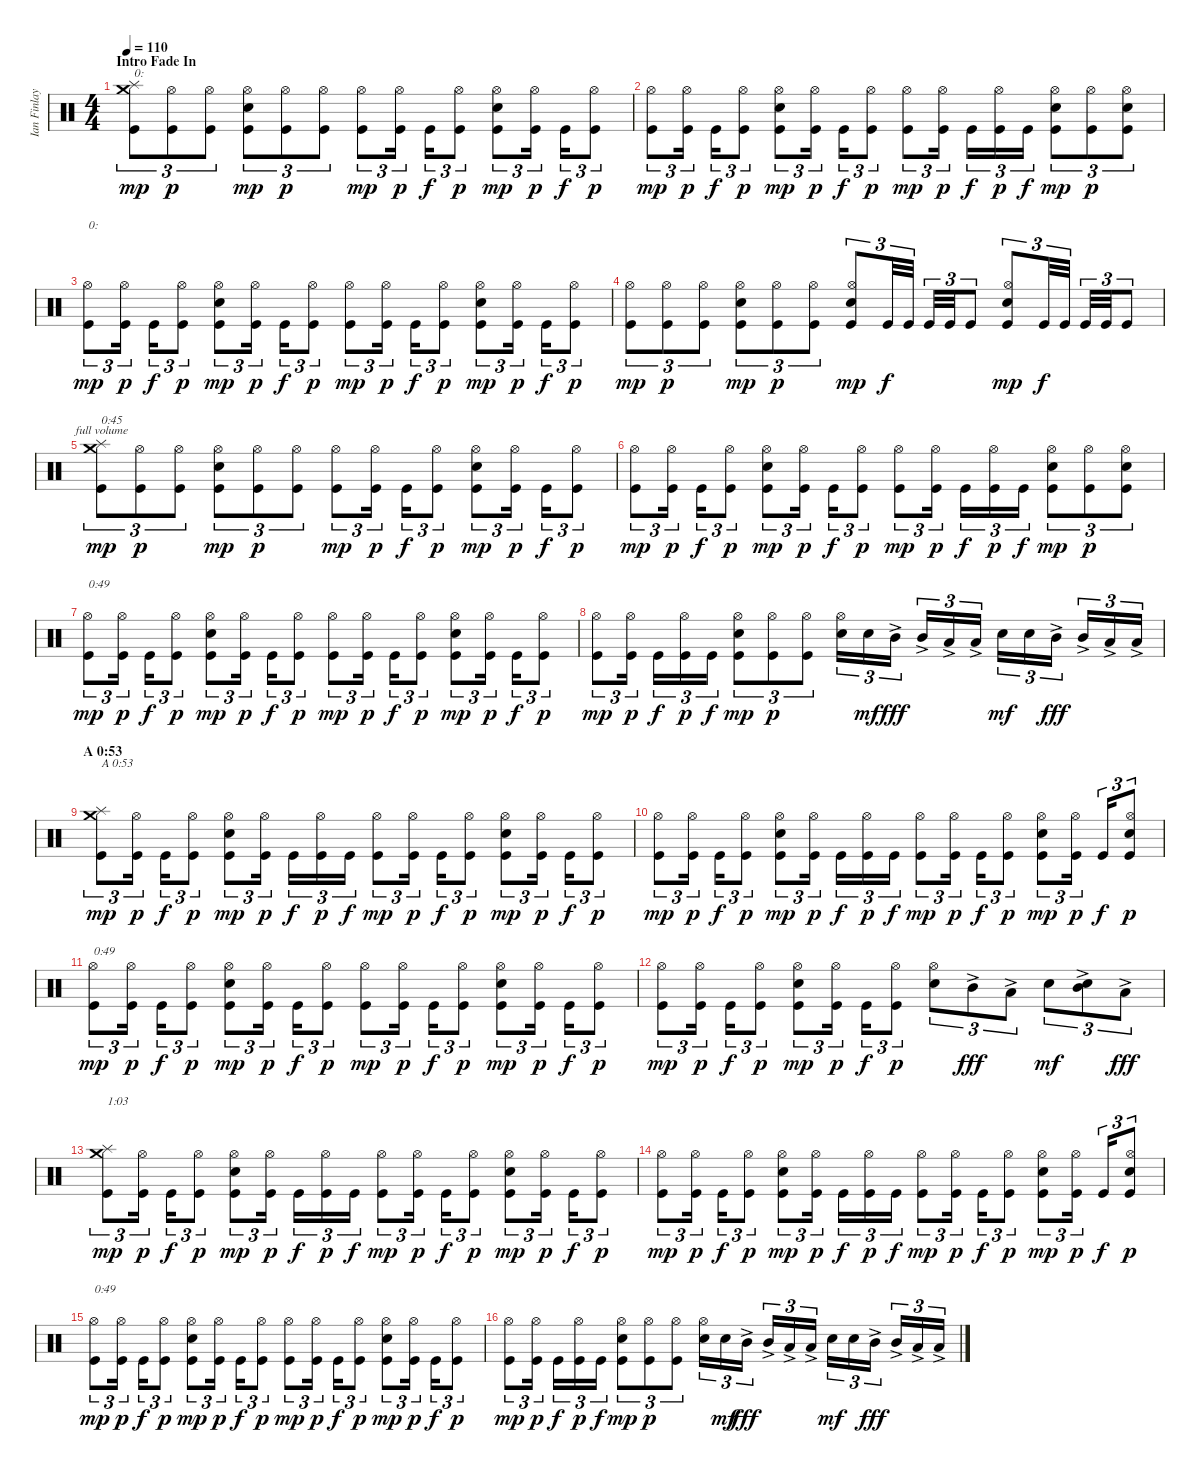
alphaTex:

\track ("Ian Finlay" "Ian Finlay") {instrument percussion}
\staff {score}
\articulation defaults
\chord ("full volume")
\ts (4 4)
\section ("" "Intro Fade In")
\tempo 110
\clef neutral
\ks c
("Kick (hit)" "Splash (hit)" "Crash medium (hit)").8{tu (3 2) txt "0:" dy mp volume 0} ("Kick (hit)" "Hi-Hat (open)").8{tu (3 2) dy p volume 12} ("Kick (hit)" "Hi-Hat (open)").8{tu (3 2)} ("Kick (hit)" "Snare (hit) 2" "Hi-Hat (open)").8{tu (3 2) dy mp} ("Kick (hit)" "Hi-Hat (open)").8{tu (3 2) dy p} ("Kick (hit)" "Hi-Hat (open)").8{tu (3 2)} ("Kick (hit)" "Hi-Hat (open)").8{tu (3 2) dy mp} ("Kick (hit)" "Hi-Hat (open)").16{tu (3 2) dy p} "Kick (hit)".16{tu (3 2) dy f} ("Kick (hit)" "Hi-Hat (open)").8{tu (3 2) dy p} ("Kick (hit)" "Snare (hit) 2" "Hi-Hat (open)").8{tu (3 2) dy mp} ("Kick (hit)" "Hi-Hat (open)").16{tu (3 2) dy p} "Kick (hit)".16{tu (3 2) dy f} ("Kick (hit)" "Hi-Hat (open)").8{tu (3 2) dy p} |
("Kick (hit)" "Hi-Hat (open)").8{tu (3 2) dy mp} ("Kick (hit)" "Hi-Hat (open)").16{tu (3 2) dy p} "Kick (hit)".16{tu (3 2) dy f} ("Kick (hit)" "Hi-Hat (open)").8{tu (3 2) dy p} ("Kick (hit)" "Snare (hit) 2" "Hi-Hat (open)").8{tu (3 2) dy mp} ("Kick (hit)" "Hi-Hat (open)").16{tu (3 2) dy p} "Kick (hit)".16{tu (3 2) dy f} ("Kick (hit)" "Hi-Hat (open)").8{tu (3 2) dy p} ("Kick (hit)" "Hi-Hat (open)").8{tu (3 2) dy mp} ("Kick (hit)" "Hi-Hat (open)").16{tu (3 2) dy p} "Kick (hit)".16{tu (3 2) dy f} ("Kick (hit)" "Hi-Hat (open)").16{tu (3 2) dy p} "Kick (hit)".16{tu (3 2) dy f} ("Kick (hit)" "Snare (hit) 2" "Hi-Hat (open)").8{tu (3 2) dy mp} ("Kick (hit)" "Hi-Hat (open)").8{tu (3 2) dy p} ("Kick (hit)" "Snare (hit) 2" "Hi-Hat (open)").8{tu (3 2)} |
("Kick (hit)" "Hi-Hat (open)").8{tu (3 2) txt "0:" dy mp} ("Kick (hit)" "Hi-Hat (open)").16{tu (3 2) dy p} "Kick (hit)".16{tu (3 2) dy f} ("Kick (hit)" "Hi-Hat (open)").8{tu (3 2) dy p} ("Kick (hit)" "Snare (hit) 2" "Hi-Hat (open)").8{tu (3 2) dy mp} ("Kick (hit)" "Hi-Hat (open)").16{tu (3 2) dy p} "Kick (hit)".16{tu (3 2) dy f} ("Kick (hit)" "Hi-Hat (open)").8{tu (3 2) dy p} ("Kick (hit)" "Hi-Hat (open)").8{tu (3 2) dy mp} ("Kick (hit)" "Hi-Hat (open)").16{tu (3 2) dy p} "Kick (hit)".16{tu (3 2) dy f} ("Kick (hit)" "Hi-Hat (open)").8{tu (3 2) dy p} ("Kick (hit)" "Snare (hit) 2" "Hi-Hat (open)").8{tu (3 2) dy mp} ("Kick (hit)" "Hi-Hat (open)").16{tu (3 2) dy p} "Kick (hit)".16{tu (3 2) dy f} ("Kick (hit)" "Hi-Hat (open)").8{tu (3 2) dy p} |
("Kick (hit)" "Hi-Hat (open)").8{tu (3 2) dy mp} ("Kick (hit)" "Hi-Hat (open)").8{tu (3 2) dy p} ("Kick (hit)" "Hi-Hat (open)").8{tu (3 2)} ("Kick (hit)" "Snare (hit) 2" "Hi-Hat (open)").8{tu (3 2) dy mp} ("Kick (hit)" "Hi-Hat (open)").8{tu (3 2) dy p} ("Kick (hit)" "Hi-Hat (open)").8{tu (3 2)} ("Kick (hit)" "Snare (hit) 2" "Hi-Hat (open)").8{tu (3 2) dy mp} "Kick (hit)".32{tu (3 2) dy f} "Kick (hit)".32{tu (3 2)} "Kick (hit)".32{tu (3 2)} "Kick (hit)".32{tu (3 2)} "Kick (hit)".8{tu (3 2)} ("Kick (hit)" "Snare (hit) 2" "Hi-Hat (open)").8{tu (3 2) dy mp} "Kick (hit)".32{tu (3 2) dy f} "Kick (hit)".32{tu (3 2)} "Kick (hit)".32{tu (3 2)} "Kick (hit)".32{tu (3 2)} "Kick (hit)".8{tu (3 2)} |
("Kick (hit)" "Splash (hit)" "Crash medium (hit)").8{tu (3 2) ch "full volume" txt "0:45" dy mp} ("Kick (hit)" "Hi-Hat (open)").8{tu (3 2) dy p} ("Kick (hit)" "Hi-Hat (open)").8{tu (3 2)} ("Kick (hit)" "Snare (hit) 2" "Hi-Hat (open)").8{tu (3 2) dy mp} ("Kick (hit)" "Hi-Hat (open)").8{tu (3 2) dy p} ("Kick (hit)" "Hi-Hat (open)").8{tu (3 2)} ("Kick (hit)" "Hi-Hat (open)").8{tu (3 2) dy mp} ("Kick (hit)" "Hi-Hat (open)").16{tu (3 2) dy p} "Kick (hit)".16{tu (3 2) dy f} ("Kick (hit)" "Hi-Hat (open)").8{tu (3 2) dy p} ("Kick (hit)" "Snare (hit) 2" "Hi-Hat (open)").8{tu (3 2) dy mp} ("Kick (hit)" "Hi-Hat (open)").16{tu (3 2) dy p} "Kick (hit)".16{tu (3 2) dy f} ("Kick (hit)" "Hi-Hat (open)").8{tu (3 2) dy p} |
("Kick (hit)" "Hi-Hat (open)").8{tu (3 2) dy mp} ("Kick (hit)" "Hi-Hat (open)").16{tu (3 2) dy p} "Kick (hit)".16{tu (3 2) dy f} ("Kick (hit)" "Hi-Hat (open)").8{tu (3 2) dy p} ("Kick (hit)" "Snare (hit) 2" "Hi-Hat (open)").8{tu (3 2) dy mp} ("Kick (hit)" "Hi-Hat (open)").16{tu (3 2) dy p} "Kick (hit)".16{tu (3 2) dy f} ("Kick (hit)" "Hi-Hat (open)").8{tu (3 2) dy p} ("Kick (hit)" "Hi-Hat (open)").8{tu (3 2) dy mp} ("Kick (hit)" "Hi-Hat (open)").16{tu (3 2) dy p} "Kick (hit)".16{tu (3 2) dy f} ("Kick (hit)" "Hi-Hat (open)").16{tu (3 2) dy p} "Kick (hit)".16{tu (3 2) dy f} ("Kick (hit)" "Snare (hit) 2" "Hi-Hat (open)").8{tu (3 2) dy mp} ("Kick (hit)" "Hi-Hat (open)").8{tu (3 2) dy p} ("Kick (hit)" "Snare (hit) 2" "Hi-Hat (open)").8{tu (3 2)} |
("Kick (hit)" "Hi-Hat (open)").8{tu (3 2) txt "0:49" dy mp} ("Kick (hit)" "Hi-Hat (open)").16{tu (3 2) dy p} "Kick (hit)".16{tu (3 2) dy f} ("Kick (hit)" "Hi-Hat (open)").8{tu (3 2) dy p} ("Kick (hit)" "Snare (hit) 2" "Hi-Hat (open)").8{tu (3 2) dy mp} ("Kick (hit)" "Hi-Hat (open)").16{tu (3 2) dy p} "Kick (hit)".16{tu (3 2) dy f} ("Kick (hit)" "Hi-Hat (open)").8{tu (3 2) dy p} ("Kick (hit)" "Hi-Hat (open)").8{tu (3 2) dy mp} ("Kick (hit)" "Hi-Hat (open)").16{tu (3 2) dy p} "Kick (hit)".16{tu (3 2) dy f} ("Kick (hit)" "Hi-Hat (open)").8{tu (3 2) dy p} ("Kick (hit)" "Snare (hit) 2" "Hi-Hat (open)").8{tu (3 2) dy mp} ("Kick (hit)" "Hi-Hat (open)").16{tu (3 2) dy p} "Kick (hit)".16{tu (3 2) dy f} ("Kick (hit)" "Hi-Hat (open)").8{tu (3 2) dy p} |
("Kick (hit)" "Hi-Hat (open)").8{tu (3 2) dy mp} ("Kick (hit)" "Hi-Hat (open)").16{tu (3 2) dy p} "Kick (hit)".16{tu (3 2) dy f} ("Kick (hit)" "Hi-Hat (open)").16{tu (3 2) dy p} "Kick (hit)".16{tu (3 2) dy f} ("Kick (hit)" "Snare (hit) 2" "Hi-Hat (open)").8{tu (3 2) dy mp} ("Kick (hit)" "Hi-Hat (open)").8{tu (3 2) dy p} ("Kick (hit)" "Hi-Hat (open)").8{tu (3 2)} ("Snare (hit) 2" "Hi-Hat (open)").16{tu (3 2)} "Snare (hit) 2".16{tu (3 2) dy mf} "Mid Tom (hit)"{ac}.16{tu (3 2) dy fff} "Mid Tom (hit)"{ac}.16{tu (3 2)} "Low Tom (hit)"{ac}.16{tu (3 2)} "Low Tom (hit)"{ac}.16{tu (3 2)} "Snare (hit) 2".16{tu (3 2) dy mf} "Snare (hit) 2".16{tu (3 2)} "Mid Tom (hit)"{ac}.16{tu (3 2) dy fff} "Mid Tom (hit)"{ac}.16{tu (3 2)} "Low Tom (hit)"{ac}.16{tu (3 2)} "Low Tom (hit)"{ac}.16{tu (3 2)} |
\section ("" "A 0:53")
("Kick (hit)" "Splash (hit)" "Crash medium (hit)").8{tu (3 2) txt "A 0:53" dy mp} ("Kick (hit)" "Hi-Hat (open)").16{tu (3 2) dy p} "Kick (hit)".16{tu (3 2) dy f} ("Kick (hit)" "Hi-Hat (open)").8{tu (3 2) dy p} ("Kick (hit)" "Snare (hit) 2" "Hi-Hat (open)").8{tu (3 2) dy mp} ("Kick (hit)" "Hi-Hat (open)").16{tu (3 2) dy p} "Kick (hit)".16{tu (3 2) dy f} ("Kick (hit)" "Hi-Hat (open)").16{tu (3 2) dy p} "Kick (hit)".16{tu (3 2) dy f} ("Kick (hit)" "Hi-Hat (open)").8{tu (3 2) dy mp} ("Kick (hit)" "Hi-Hat (open)").16{tu (3 2) dy p} "Kick (hit)".16{tu (3 2) dy f} ("Kick (hit)" "Hi-Hat (open)").8{tu (3 2) dy p} ("Kick (hit)" "Snare (hit) 2" "Hi-Hat (open)").8{tu (3 2) dy mp} ("Kick (hit)" "Hi-Hat (open)").16{tu (3 2) dy p} "Kick (hit)".16{tu (3 2) dy f} ("Kick (hit)" "Hi-Hat (open)").8{tu (3 2) dy p} |
("Kick (hit)" "Hi-Hat (open)").8{tu (3 2) dy mp} ("Kick (hit)" "Hi-Hat (open)").16{tu (3 2) dy p} "Kick (hit)".16{tu (3 2) dy f} ("Kick (hit)" "Hi-Hat (open)").8{tu (3 2) dy p} ("Kick (hit)" "Snare (hit) 2" "Hi-Hat (open)").8{tu (3 2) dy mp} ("Kick (hit)" "Hi-Hat (open)").16{tu (3 2) dy p} "Kick (hit)".16{tu (3 2) dy f} ("Kick (hit)" "Hi-Hat (open)").16{tu (3 2) dy p} "Kick (hit)".16{tu (3 2) dy f} ("Kick (hit)" "Hi-Hat (open)").8{tu (3 2) dy mp} ("Kick (hit)" "Hi-Hat (open)").16{tu (3 2) dy p} "Kick (hit)".16{tu (3 2) dy f} ("Kick (hit)" "Hi-Hat (open)").8{tu (3 2) dy p} ("Kick (hit)" "Snare (hit) 2" "Hi-Hat (open)").8{tu (3 2) dy mp} ("Kick (hit)" "Hi-Hat (open)").16{tu (3 2) dy p} "Kick (hit)".16{tu (3 2) dy f} ("Kick (hit)" "Snare (hit) 2" "Hi-Hat (open)").8{tu (3 2) dy p} |
("Kick (hit)" "Hi-Hat (open)").8{tu (3 2) txt "0:49" dy mp} ("Kick (hit)" "Hi-Hat (open)").16{tu (3 2) dy p} "Kick (hit)".16{tu (3 2) dy f} ("Kick (hit)" "Hi-Hat (open)").8{tu (3 2) dy p} ("Kick (hit)" "Snare (hit) 2" "Hi-Hat (open)").8{tu (3 2) dy mp} ("Kick (hit)" "Hi-Hat (open)").16{tu (3 2) dy p} "Kick (hit)".16{tu (3 2) dy f} ("Kick (hit)" "Hi-Hat (open)").8{tu (3 2) dy p} ("Kick (hit)" "Hi-Hat (open)").8{tu (3 2) dy mp} ("Kick (hit)" "Hi-Hat (open)").16{tu (3 2) dy p} "Kick (hit)".16{tu (3 2) dy f} ("Kick (hit)" "Hi-Hat (open)").8{tu (3 2) dy p} ("Kick (hit)" "Snare (hit) 2" "Hi-Hat (open)").8{tu (3 2) dy mp} ("Kick (hit)" "Hi-Hat (open)").16{tu (3 2) dy p} "Kick (hit)".16{tu (3 2) dy f} ("Kick (hit)" "Hi-Hat (open)").8{tu (3 2) dy p} |
("Kick (hit)" "Hi-Hat (open)").8{tu (3 2) dy mp} ("Kick (hit)" "Hi-Hat (open)").16{tu (3 2) dy p} "Kick (hit)".16{tu (3 2) dy f} ("Kick (hit)" "Hi-Hat (open)").8{tu (3 2) dy p} ("Kick (hit)" "Snare (hit) 2" "Hi-Hat (open)").8{tu (3 2) dy mp} ("Kick (hit)" "Hi-Hat (open)").16{tu (3 2) dy p} "Kick (hit)".16{tu (3 2) dy f} ("Kick (hit)" "Hi-Hat (open)").8{tu (3 2) dy p} ("Snare (hit) 2" "Hi-Hat (open)").8{tu (3 2)} "Mid Tom (hit)"{ac}.8{tu (3 2) dy fff} "Low Tom (hit)"{ac}.8{tu (3 2)} "Snare (hit) 2".8{tu (3 2) dy mf} ("Mid Tom (hit)"{ac} "Snare (hit) 2").8{tu (3 2)} "Low Tom (hit)"{ac}.8{tu (3 2) dy fff} |
("Kick (hit)" "Splash (hit)" "Crash medium (hit)").8{tu (3 2) txt "1:03" dy mp} ("Kick (hit)" "Hi-Hat (open)").16{tu (3 2) dy p} "Kick (hit)".16{tu (3 2) dy f} ("Kick (hit)" "Hi-Hat (open)").8{tu (3 2) dy p} ("Kick (hit)" "Snare (hit) 2" "Hi-Hat (open)").8{tu (3 2) dy mp} ("Kick (hit)" "Hi-Hat (open)").16{tu (3 2) dy p} "Kick (hit)".16{tu (3 2) dy f} ("Kick (hit)" "Hi-Hat (open)").16{tu (3 2) dy p} "Kick (hit)".16{tu (3 2) dy f} ("Kick (hit)" "Hi-Hat (open)").8{tu (3 2) dy mp} ("Kick (hit)" "Hi-Hat (open)").16{tu (3 2) dy p} "Kick (hit)".16{tu (3 2) dy f} ("Kick (hit)" "Hi-Hat (open)").8{tu (3 2) dy p} ("Kick (hit)" "Snare (hit) 2" "Hi-Hat (open)").8{tu (3 2) dy mp} ("Kick (hit)" "Hi-Hat (open)").16{tu (3 2) dy p} "Kick (hit)".16{tu (3 2) dy f} ("Kick (hit)" "Hi-Hat (open)").8{tu (3 2) dy p} |
("Kick (hit)" "Hi-Hat (open)").8{tu (3 2) dy mp} ("Kick (hit)" "Hi-Hat (open)").16{tu (3 2) dy p} "Kick (hit)".16{tu (3 2) dy f} ("Kick (hit)" "Hi-Hat (open)").8{tu (3 2) dy p} ("Kick (hit)" "Snare (hit) 2" "Hi-Hat (open)").8{tu (3 2) dy mp} ("Kick (hit)" "Hi-Hat (open)").16{tu (3 2) dy p} "Kick (hit)".16{tu (3 2) dy f} ("Kick (hit)" "Hi-Hat (open)").16{tu (3 2) dy p} "Kick (hit)".16{tu (3 2) dy f} ("Kick (hit)" "Hi-Hat (open)").8{tu (3 2) dy mp} ("Kick (hit)" "Hi-Hat (open)").16{tu (3 2) dy p} "Kick (hit)".16{tu (3 2) dy f} ("Kick (hit)" "Hi-Hat (open)").8{tu (3 2) dy p} ("Kick (hit)" "Snare (hit) 2" "Hi-Hat (open)").8{tu (3 2) dy mp} ("Kick (hit)" "Hi-Hat (open)").16{tu (3 2) dy p} "Kick (hit)".16{tu (3 2) dy f} ("Kick (hit)" "Snare (hit) 2" "Hi-Hat (open)").8{tu (3 2) dy p} |
("Kick (hit)" "Hi-Hat (open)").8{tu (3 2) txt "0:49" dy mp} ("Kick (hit)" "Hi-Hat (open)").16{tu (3 2) dy p} "Kick (hit)".16{tu (3 2) dy f} ("Kick (hit)" "Hi-Hat (open)").8{tu (3 2) dy p} ("Kick (hit)" "Snare (hit) 2" "Hi-Hat (open)").8{tu (3 2) dy mp} ("Kick (hit)" "Hi-Hat (open)").16{tu (3 2) dy p} "Kick (hit)".16{tu (3 2) dy f} ("Kick (hit)" "Hi-Hat (open)").8{tu (3 2) dy p} ("Kick (hit)" "Hi-Hat (open)").8{tu (3 2) dy mp} ("Kick (hit)" "Hi-Hat (open)").16{tu (3 2) dy p} "Kick (hit)".16{tu (3 2) dy f} ("Kick (hit)" "Hi-Hat (open)").8{tu (3 2) dy p} ("Kick (hit)" "Snare (hit) 2" "Hi-Hat (open)").8{tu (3 2) dy mp} ("Kick (hit)" "Hi-Hat (open)").16{tu (3 2) dy p} "Kick (hit)".16{tu (3 2) dy f} ("Kick (hit)" "Hi-Hat (open)").8{tu (3 2) dy p} |
("Kick (hit)" "Hi-Hat (open)").8{tu (3 2) dy mp} ("Kick (hit)" "Hi-Hat (open)").16{tu (3 2) dy p} "Kick (hit)".16{tu (3 2) dy f} ("Kick (hit)" "Hi-Hat (open)").16{tu (3 2) dy p} "Kick (hit)".16{tu (3 2) dy f} ("Kick (hit)" "Snare (hit) 2" "Hi-Hat (open)").8{tu (3 2) dy mp} ("Kick (hit)" "Hi-Hat (open)").8{tu (3 2) dy p} ("Kick (hit)" "Hi-Hat (open)").8{tu (3 2)} ("Snare (hit) 2" "Hi-Hat (open)").16{tu (3 2)} "Snare (hit) 2".16{tu (3 2) dy mf} "Mid Tom (hit)"{ac}.16{tu (3 2) dy fff} "Mid Tom (hit)"{ac}.16{tu (3 2)} "Low Tom (hit)"{ac}.16{tu (3 2)} "Low Tom (hit)"{ac}.16{tu (3 2)} "Snare (hit) 2".16{tu (3 2) dy mf} "Snare (hit) 2".16{tu (3 2)} "Mid Tom (hit)"{ac}.16{tu (3 2) dy fff} "Mid Tom (hit)"{ac}.16{tu (3 2)} "Low Tom (hit)"{ac}.16{tu (3 2)} "Low Tom (hit)"{ac}.16{tu (3 2)}
